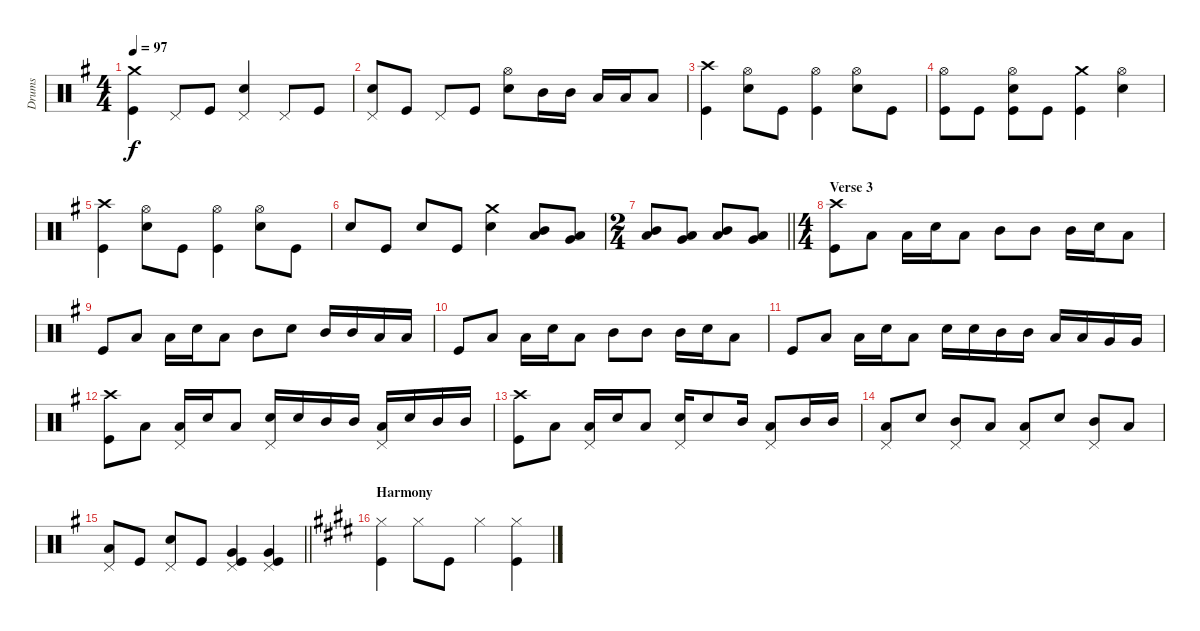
\track ("Drums" "Drums") {instrument percussion}
\staff {score}
\articulation defaults
\ts (4 4)
\tempo 97
\clef neutral
\ks g
("Crash medium (hit)" "Kick (hit)").4{dy f} "Pedal Hi-Hat (hit)".8 "Kick (hit)".8 ("Pedal Hi-Hat (hit)" "Snare (hit) 2").4 "Pedal Hi-Hat (hit)".8 "Kick (hit)".8 |
("Pedal Hi-Hat (hit)" "Snare (hit) 2").8 "Kick (hit)".8 "Pedal Hi-Hat (hit)".8 "Kick (hit)".8 ("Hi-Hat (open)" "Snare (hit) 2").8 "Mid Tom (hit)".16 "Mid Tom (hit)".16 "Low Tom (hit)".16 "Low Tom (hit)".16 "Low Tom (hit)".8 |
("Crash high (hit)" "Kick (hit)").4 ("Hi-Hat (open)" "Snare (hit) 2").8 "Kick (hit)".8 ("Hi-Hat (open)" "Kick (hit)").4 ("Hi-Hat (open)" "Snare (hit) 2").8 "Kick (hit)".8 |
("Hi-Hat (open)" "Kick (hit)").8 "Kick (hit)".8 ("Hi-Hat (open)" "Snare (hit) 2" "Kick (hit)").8 "Kick (hit)".8 ("Crash medium (hit)" "Kick (hit)").4 ("Hi-Hat (open)" "Snare (hit) 2").4 |
("Crash high (hit)" "Kick (hit)").4 ("Hi-Hat (open)" "Snare (hit) 2").8 "Kick (hit)".8 ("Hi-Hat (open)" "Kick (hit)").4 ("Hi-Hat (open)" "Snare (hit) 2").8 "Kick (hit)".8 |
"Snare (hit) 2".8 "Kick (hit)".8 "Snare (hit) 2".8 "Kick (hit)".8 ("Crash medium (hit)" "Snare (hit) 2").4 ("Mid Tom (hit)" "Low Tom (hit)").8 ("Very Low Tom (hit)" "Low Tom (hit)").8 |
\ts (2 4)
\barLineRight lightlight
("Mid Tom (hit)" "Low Tom (hit)").8 ("Very Low Tom (hit)" "Low Tom (hit)").8 ("Mid Tom (hit)" "Low Tom (hit)").8 ("Very Low Tom (hit)" "Low Tom (hit)").8 |
\ts (4 4)
\section ("" "Verse 3")
("Crash high (hit)" "Kick (hit)").8 "Low Tom (hit)".8 "Low Tom (hit)".16 "Snare (hit) 2".16 "Low Tom (hit)".8 "Mid Tom (hit)".8 "Mid Tom (hit)".8 "Mid Tom (hit)".16 "Snare (hit) 2".16 "Low Tom (hit)".8 |
"Kick (hit)".8 "Low Tom (hit)".8 "Low Tom (hit)".16 "Snare (hit) 2".16 "Low Tom (hit)".8 "Mid Tom (hit)".8 "Snare (hit) 2".8 "Mid Tom (hit)".16 "Mid Tom (hit)".16 "Low Tom (hit)".16 "Low Tom (hit)".16 |
"Kick (hit)".8 "Low Tom (hit)".8 "Low Tom (hit)".16 "Snare (hit) 2".16 "Low Tom (hit)".8 "Mid Tom (hit)".8 "Mid Tom (hit)".8 "Mid Tom (hit)".16 "Snare (hit) 2".16 "Low Tom (hit)".8 |
"Kick (hit)".8 "Low Tom (hit)".8 "Low Tom (hit)".16 "Snare (hit) 2".16 "Low Tom (hit)".8 "Snare (hit) 2".16 "Snare (hit) 2".16 "Mid Tom (hit)".16 "Mid Tom (hit)".16 "Low Tom (hit)".16 "Low Tom (hit)".16 "Very Low Tom (hit)".16 "Very Low Tom (hit)".16 |
("Crash high (hit)" "Kick (hit)").8 "Low Tom (hit)".8 ("Pedal Hi-Hat (hit)" "Low Tom (hit)").16 "Snare (hit) 2".16 "Low Tom (hit)".8 ("Pedal Hi-Hat (hit)" "Snare (hit) 2").16 "Snare (hit) 2".16 "Mid Tom (hit)".16 "Mid Tom (hit)".16 ("Pedal Hi-Hat (hit)" "Low Tom (hit)").16 "Snare (hit) 2".16 "Mid Tom (hit)".16 "Mid Tom (hit)".16 |
("Crash high (hit)" "Kick (hit)").8 "Low Tom (hit)".8 ("Pedal Hi-Hat (hit)" "Low Tom (hit)").16 "Snare (hit) 2".16 "Low Tom (hit)".8 ("Pedal Hi-Hat (hit)" "Snare (hit) 2").16 "Snare (hit) 2".8 "Mid Tom (hit)".16 ("Pedal Hi-Hat (hit)" "Low Tom (hit)").8 "Mid Tom (hit)".16 "Mid Tom (hit)".16 |
("Pedal Hi-Hat (hit)" "Low Tom (hit)").8 "Snare (hit) 2".8 ("Pedal Hi-Hat (hit)" "Mid Tom (hit)").8 "Low Tom (hit)".8 ("Pedal Hi-Hat (hit)" "Low Tom (hit)").8 "Snare (hit) 2".8 ("Pedal Hi-Hat (hit)" "Mid Tom (hit)").8 "Low Tom (hit)".8 |
\barLineRight lightlight
("Pedal Hi-Hat (hit)" "Low Tom (hit)").8 "Kick (hit)".8 ("Pedal Hi-Hat (hit)" "Snare (hit) 2").8 "Kick (hit)".8 ("Pedal Hi-Hat (hit)" "Very Low Tom (hit)" "Kick (hit)").4 ("Pedal Hi-Hat (hit)" "Very Low Tom (hit)" "Kick (hit)").4 |
\section ("" "Harmony")
\ks c#minor
("Hi-Hat (closed)" "Kick (hit)").4 "Hi-Hat (closed)".8 "Kick (hit)".8 "Hi-Hat (closed)".4 ("Hi-Hat (closed)" "Kick (hit)").4
